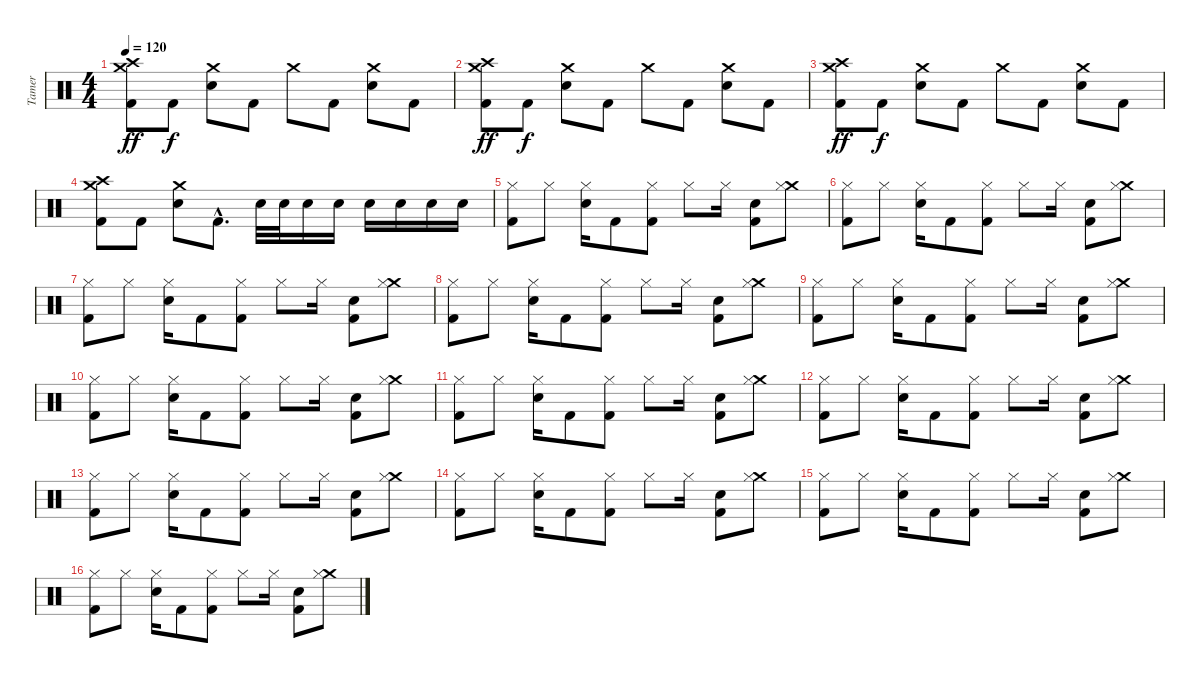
\track ("Tamer" "Tamer") {instrument percussion}
\staff {score}
\articulation defaults
\ts (4 4)
\tempo 120
\clef neutral
\ks c
("Crash high (hit)" "Crash medium (hit)" "Kick (hit) 2").8{dy ff} "Kick (hit) 2".8{dy f} ("Crash medium (hit)" "Electric Snare (hit)").8 "Kick (hit) 2".8 "Crash medium (hit)".8 "Kick (hit) 2".8 ("Crash medium (hit)" "Electric Snare (hit)").8 "Kick (hit) 2".8 |
("Crash high (hit)" "Crash medium (hit)" "Kick (hit) 2").8{dy ff} "Kick (hit) 2".8{dy f} ("Crash medium (hit)" "Electric Snare (hit)").8 "Kick (hit) 2".8 "Crash medium (hit)".8 "Kick (hit) 2".8 ("Crash medium (hit)" "Electric Snare (hit)").8 "Kick (hit) 2".8 |
("Crash high (hit)" "Crash medium (hit)" "Kick (hit) 2").8{dy ff} "Kick (hit) 2".8{dy f} ("Crash medium (hit)" "Electric Snare (hit)").8 "Kick (hit) 2".8 "Crash medium (hit)".8 "Kick (hit) 2".8 ("Crash medium (hit)" "Electric Snare (hit)").8 "Kick (hit) 2".8 |
("Crash high (hit)" "Crash medium (hit)" "Kick (hit) 2").8 "Kick (hit) 2".8 ("Crash medium (hit)" "Electric Snare (hit)").8 "Kick (hit) 2"{hac}.8{d} "Electric Snare (hit)".32 "Electric Snare (hit)".32 "Electric Snare (hit)".16 "Electric Snare (hit)".16 "Electric Snare (hit)".16 "Electric Snare (hit)".16 "Electric Snare (hit)".16 "Electric Snare (hit)".16 |
("Hi-Hat (closed)" "Kick (hit) 2").8 "Hi-Hat (closed)".8 ("Electric Snare (hit)" "Hi-Hat (closed)").16 "Kick (hit) 2".8 ("Hi-Hat (closed)" "Kick (hit) 2").8 "Hi-Hat (closed)".8 "Hi-Hat (closed)".16 ("Electric Snare (hit)" "Kick (hit) 2").8 ("Crash medium (hit)" "Hi-Hat (closed)").8 |
("Hi-Hat (closed)" "Kick (hit) 2").8 "Hi-Hat (closed)".8 ("Electric Snare (hit)" "Hi-Hat (closed)").16 "Kick (hit) 2".8 ("Hi-Hat (closed)" "Kick (hit) 2").8 "Hi-Hat (closed)".8 "Hi-Hat (closed)".16 ("Electric Snare (hit)" "Kick (hit) 2").8 ("Crash medium (hit)" "Hi-Hat (closed)").8 |
("Hi-Hat (closed)" "Kick (hit) 2").8 "Hi-Hat (closed)".8 ("Electric Snare (hit)" "Hi-Hat (closed)").16 "Kick (hit) 2".8 ("Hi-Hat (closed)" "Kick (hit) 2").8 "Hi-Hat (closed)".8 "Hi-Hat (closed)".16 ("Electric Snare (hit)" "Kick (hit) 2").8 ("Crash medium (hit)" "Hi-Hat (closed)").8 |
("Hi-Hat (closed)" "Kick (hit) 2").8 "Hi-Hat (closed)".8 ("Electric Snare (hit)" "Hi-Hat (closed)").16 "Kick (hit) 2".8 ("Hi-Hat (closed)" "Kick (hit) 2").8 "Hi-Hat (closed)".8 "Hi-Hat (closed)".16 ("Electric Snare (hit)" "Kick (hit) 2").8 ("Crash medium (hit)" "Hi-Hat (closed)").8 |
("Hi-Hat (closed)" "Kick (hit) 2").8 "Hi-Hat (closed)".8 ("Electric Snare (hit)" "Hi-Hat (closed)").16 "Kick (hit) 2".8 ("Hi-Hat (closed)" "Kick (hit) 2").8 "Hi-Hat (closed)".8 "Hi-Hat (closed)".16 ("Electric Snare (hit)" "Kick (hit) 2").8 ("Crash medium (hit)" "Hi-Hat (closed)").8 |
("Hi-Hat (closed)" "Kick (hit) 2").8 "Hi-Hat (closed)".8 ("Electric Snare (hit)" "Hi-Hat (closed)").16 "Kick (hit) 2".8 ("Hi-Hat (closed)" "Kick (hit) 2").8 "Hi-Hat (closed)".8 "Hi-Hat (closed)".16 ("Electric Snare (hit)" "Kick (hit) 2").8 ("Crash medium (hit)" "Hi-Hat (closed)").8 |
("Hi-Hat (closed)" "Kick (hit) 2").8 "Hi-Hat (closed)".8 ("Electric Snare (hit)" "Hi-Hat (closed)").16 "Kick (hit) 2".8 ("Hi-Hat (closed)" "Kick (hit) 2").8 "Hi-Hat (closed)".8 "Hi-Hat (closed)".16 ("Electric Snare (hit)" "Kick (hit) 2").8 ("Crash medium (hit)" "Hi-Hat (closed)").8 |
("Hi-Hat (closed)" "Kick (hit) 2").8 "Hi-Hat (closed)".8 ("Electric Snare (hit)" "Hi-Hat (closed)").16 "Kick (hit) 2".8 ("Hi-Hat (closed)" "Kick (hit) 2").8 "Hi-Hat (closed)".8 "Hi-Hat (closed)".16 ("Electric Snare (hit)" "Kick (hit) 2").8 ("Crash medium (hit)" "Hi-Hat (closed)").8 |
("Hi-Hat (closed)" "Kick (hit) 2").8 "Hi-Hat (closed)".8 ("Electric Snare (hit)" "Hi-Hat (closed)").16 "Kick (hit) 2".8 ("Hi-Hat (closed)" "Kick (hit) 2").8 "Hi-Hat (closed)".8 "Hi-Hat (closed)".16 ("Electric Snare (hit)" "Kick (hit) 2").8 ("Crash medium (hit)" "Hi-Hat (closed)").8 |
("Hi-Hat (closed)" "Kick (hit) 2").8 "Hi-Hat (closed)".8 ("Electric Snare (hit)" "Hi-Hat (closed)").16 "Kick (hit) 2".8 ("Hi-Hat (closed)" "Kick (hit) 2").8 "Hi-Hat (closed)".8 "Hi-Hat (closed)".16 ("Electric Snare (hit)" "Kick (hit) 2").8 ("Crash medium (hit)" "Hi-Hat (closed)").8 |
("Hi-Hat (closed)" "Kick (hit) 2").8 "Hi-Hat (closed)".8 ("Electric Snare (hit)" "Hi-Hat (closed)").16 "Kick (hit) 2".8 ("Hi-Hat (closed)" "Kick (hit) 2").8 "Hi-Hat (closed)".8 "Hi-Hat (closed)".16 ("Electric Snare (hit)" "Kick (hit) 2").8 ("Crash medium (hit)" "Hi-Hat (closed)").8 |
("Hi-Hat (closed)" "Kick (hit) 2").8 "Hi-Hat (closed)".8 ("Electric Snare (hit)" "Hi-Hat (closed)").16 "Kick (hit) 2".8 ("Hi-Hat (closed)" "Kick (hit) 2").8 "Hi-Hat (closed)".8 "Hi-Hat (closed)".16 ("Electric Snare (hit)" "Kick (hit) 2").8 ("Crash medium (hit)" "Hi-Hat (closed)").8
